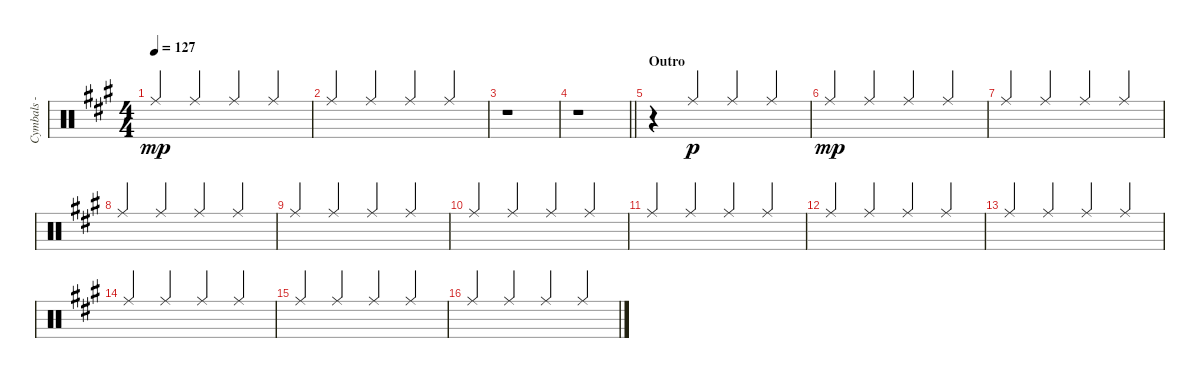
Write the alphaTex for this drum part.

\track ("Cymbals - ride" "Cymbals - ") {instrument percussion}
\staff {score}
\articulation defaults
\ts (4 4)
\tempo 127
\clef neutral
\ks a "Ride (middle)".4{dy mp beam Up} "Ride (middle)".4{beam Up} "Ride (middle)".4{beam Up} "Ride (middle)".4{beam Up}
|
"Ride (middle)".4{beam Up} "Ride (middle)".4{beam Up} "Ride (middle)".4{beam Up} "Ride (middle)".4{beam Up} |
r.1 |
\barLineRight lightlight
r.1 |
\section ("" "Outro")
r.4 "Ride (middle)".4{dy p beam Up} "Ride (middle)".4{beam Up} "Ride (middle)".4{beam Up} |
"Ride (middle)".4{dy mp beam Up} "Ride (middle)".4{beam Up} "Ride (middle)".4{beam Up} "Ride (middle)".4{beam Up} |
"Ride (middle)".4{beam Up} "Ride (middle)".4{beam Up} "Ride (middle)".4{beam Up} "Ride (middle)".4{beam Up} |
"Ride (middle)".4{beam Up} "Ride (middle)".4{beam Up} "Ride (middle)".4{beam Up} "Ride (middle)".4{beam Up} |
"Ride (middle)".4{beam Up} "Ride (middle)".4{beam Up} "Ride (middle)".4{beam Up} "Ride (middle)".4{beam Up} |
"Ride (middle)".4{beam Up} "Ride (middle)".4{beam Up} "Ride (middle)".4{beam Up} "Ride (middle)".4{beam Up} |
"Ride (middle)".4{beam Up} "Ride (middle)".4{beam Up} "Ride (middle)".4{beam Up} "Ride (middle)".4{beam Up} |
"Ride (middle)".4{beam Up} "Ride (middle)".4{beam Up} "Ride (middle)".4{beam Up} "Ride (middle)".4{beam Up} |
"Ride (middle)".4{beam Up} "Ride (middle)".4{beam Up} "Ride (middle)".4{beam Up} "Ride (middle)".4{beam Up} |
"Ride (middle)".4{beam Up} "Ride (middle)".4{beam Up} "Ride (middle)".4{beam Up} "Ride (middle)".4{beam Up} |
"Ride (middle)".4{beam Up} "Ride (middle)".4{beam Up} "Ride (middle)".4{beam Up} "Ride (middle)".4{beam Up} |
"Ride (middle)".4{beam Up} "Ride (middle)".4{beam Up} "Ride (middle)".4{beam Up} "Ride (middle)".4{beam Up}
